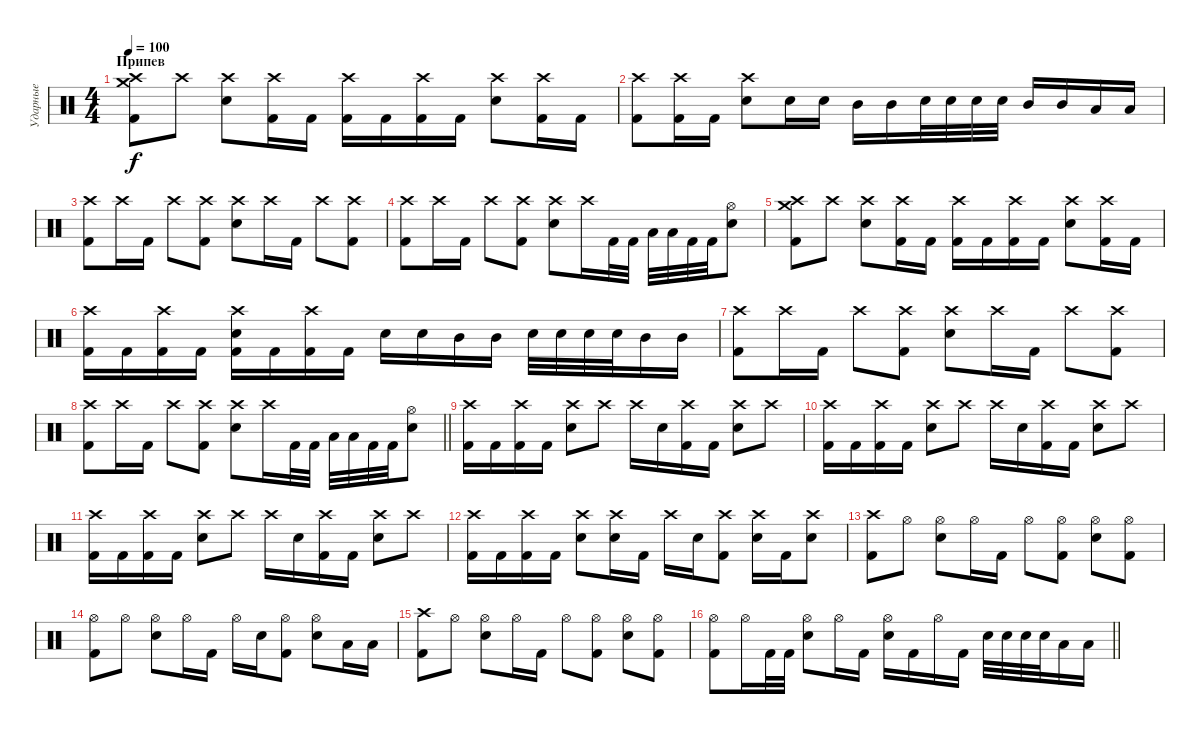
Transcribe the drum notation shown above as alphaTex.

\track ("Ударные" "Ударные") {instrument percussion}
\staff {score}
\articulation defaults
\ts (4 4)
\section ("" "Припев")
\tempo 100
\clef neutral
\ks c
("Kick (hit) 2" "Crash high (hit)" "Crash medium (hit)").8{dy f} "Crash high (hit)".8 ("Crash high (hit)" "Snare (hit) 2").8 ("Crash high (hit)" "Kick (hit) 2").16 "Kick (hit) 2".16 ("Kick (hit) 2" "Crash high (hit)").16 "Kick (hit) 2".16 ("Kick (hit) 2" "Crash high (hit)").16 "Kick (hit) 2".16 ("Snare (hit) 2" "Crash high (hit)").8 ("Crash high (hit)" "Kick (hit) 2").16 "Kick (hit) 2".16 |
("Kick (hit) 2" "Crash high (hit)").8 ("Kick (hit) 2" "Crash high (hit)").16 "Kick (hit) 2".16 ("Crash high (hit)" "Snare (hit) 2").8 "Snare (hit) 2".16 "Snare (hit) 2".16 "Mid Tom (hit)".16 "Mid Tom (hit)".16 "Snare (hit) 2".32 "Snare (hit) 2".32 "Snare (hit) 2".32 "Snare (hit) 2".32 "Mid Tom (hit)".16 "Mid Tom (hit)".16 "Low Tom (hit)".16 "Low Tom (hit)".16 |
("Crash high (hit)" "Kick (hit) 2").8 "Crash high (hit)".16 "Kick (hit) 2".16 "Crash high (hit)".8 ("Crash high (hit)" "Kick (hit) 2").8 ("Crash high (hit)" "Snare (hit) 2").8 "Crash high (hit)".16 "Kick (hit) 2".16 "Crash high (hit)".8 ("Kick (hit) 2" "Crash high (hit)").8 |
("Crash high (hit)" "Kick (hit) 2").8 "Crash high (hit)".16 "Kick (hit) 2".16 "Crash high (hit)".8 ("Crash high (hit)" "Kick (hit) 2").8 ("Crash high (hit)" "Snare (hit) 2").8 "Crash high (hit)".16 "Kick (hit) 2".32 "Kick (hit) 2".32 "Low Tom (hit)".32 "Low Floor Tom (hit)".32 "Kick (hit) 2".32 "Kick (hit) 2".32 ("Hi-Hat (open)" "Snare (hit) 2").8 |
("Kick (hit) 2" "Crash high (hit)" "Crash medium (hit)").8 "Crash high (hit)".8 ("Crash high (hit)" "Snare (hit) 2").8 ("Crash high (hit)" "Kick (hit) 2").16 "Kick (hit) 2".16 ("Kick (hit) 2" "Crash high (hit)").16 "Kick (hit) 2".16 ("Kick (hit) 2" "Crash high (hit)").16 "Kick (hit) 2".16 ("Snare (hit) 2" "Crash high (hit)").8 ("Crash high (hit)" "Kick (hit) 2").16 "Kick (hit) 2".16 |
("Kick (hit) 2" "Crash high (hit)").16 "Kick (hit) 2".16 ("Kick (hit) 2" "Crash high (hit)").16 "Kick (hit) 2".16 ("Crash high (hit)" "Snare (hit) 2" "Kick (hit) 2").16 "Kick (hit) 2".16 ("Kick (hit) 2" "Crash high (hit)").16 "Kick (hit) 2".16 "Snare (hit) 2".16 "Snare (hit) 2".16 "Mid Tom (hit)".16 "Mid Tom (hit)".16 "Snare (hit) 2".32 "Snare (hit) 2".32 "Snare (hit) 2".32 "Snare (hit) 2".32 "Mid Tom (hit)".16 "Mid Tom (hit)".16 |
("Crash high (hit)" "Kick (hit) 2").8 "Crash high (hit)".16 "Kick (hit) 2".16 "Crash high (hit)".8 ("Crash high (hit)" "Kick (hit) 2").8 ("Crash high (hit)" "Snare (hit) 2").8 "Crash high (hit)".16 "Kick (hit) 2".16 "Crash high (hit)".8 ("Kick (hit) 2" "Crash high (hit)").8 |
\barLineRight lightlight
("Crash high (hit)" "Kick (hit) 2").8 "Crash high (hit)".16 "Kick (hit) 2".16 "Crash high (hit)".8 ("Crash high (hit)" "Kick (hit) 2").8 ("Crash high (hit)" "Snare (hit) 2").8 "Crash high (hit)".16 "Kick (hit) 2".32 "Kick (hit) 2".32 "Low Tom (hit)".32 "Low Floor Tom (hit)".32 "Kick (hit) 2".32 "Kick (hit) 2".32 ("Hi-Hat (open)" "Snare (hit) 2").8 |
("Crash high (hit)" "Kick (hit) 2").16 "Kick (hit) 2".16 ("Crash high (hit)" "Kick (hit) 2").16 "Kick (hit) 2".16 ("Crash high (hit)" "Snare (hit) 2").8 "Crash high (hit)".8 "Crash high (hit)".16 "Snare (hit) 2".16 ("Crash high (hit)" "Kick (hit) 2").16 "Kick (hit) 2".16 ("Crash high (hit)" "Snare (hit) 2").8 "Crash high (hit)".8 |
("Crash high (hit)" "Kick (hit) 2").16 "Kick (hit) 2".16 ("Crash high (hit)" "Kick (hit) 2").16 "Kick (hit) 2".16 ("Crash high (hit)" "Snare (hit) 2").8 "Crash high (hit)".8 "Crash high (hit)".16 "Snare (hit) 2".16 ("Crash high (hit)" "Kick (hit) 2").16 "Kick (hit) 2".16 ("Crash high (hit)" "Snare (hit) 2").8 "Crash high (hit)".8 |
("Crash high (hit)" "Kick (hit) 2").16 "Kick (hit) 2".16 ("Crash high (hit)" "Kick (hit) 2").16 "Kick (hit) 2".16 ("Crash high (hit)" "Snare (hit) 2").8 "Crash high (hit)".8 "Crash high (hit)".16 "Snare (hit) 2".16 ("Crash high (hit)" "Kick (hit) 2").16 "Kick (hit) 2".16 ("Crash high (hit)" "Snare (hit) 2").8 "Crash high (hit)".8 |
("Crash high (hit)" "Kick (hit) 2").16 "Kick (hit) 2".16 ("Crash high (hit)" "Kick (hit) 2").16 "Kick (hit) 2".16 ("Crash high (hit)" "Snare (hit) 2").8 ("Snare (hit) 2" "Crash high (hit)").16 "Kick (hit) 2".16 "Crash high (hit)".16 "Snare (hit) 2".16 ("Crash high (hit)" "Kick (hit) 2").8 ("Crash high (hit)" "Snare (hit) 2").16 "Kick (hit) 2".16 ("Crash high (hit)" "Snare (hit) 2").8 |
("Crash high (hit)" "Kick (hit) 2").8 "Hi-Hat (open)".8 ("Hi-Hat (open)" "Snare (hit) 2").8 "Hi-Hat (open)".16 "Kick (hit) 2".16 "Hi-Hat (open)".8 ("Hi-Hat (open)" "Kick (hit) 2").8 ("Hi-Hat (open)" "Snare (hit) 2").8 ("Kick (hit) 2" "Hi-Hat (open)").8 |
("Hi-Hat (open)" "Kick (hit) 2").8 "Hi-Hat (open)".8 ("Hi-Hat (open)" "Snare (hit) 2").8 "Hi-Hat (open)".16 "Kick (hit) 2".16 "Hi-Hat (open)".16 "Snare (hit) 2".16 ("Hi-Hat (open)" "Kick (hit) 2").8 ("Hi-Hat (open)" "Snare (hit) 2").8 "Low Tom (hit)".16 "Low Floor Tom (hit)".16 |
("Crash high (hit)" "Kick (hit) 2").8 "Hi-Hat (open)".8 ("Hi-Hat (open)" "Snare (hit) 2").8 "Hi-Hat (open)".16 "Kick (hit) 2".16 "Hi-Hat (open)".8 ("Hi-Hat (open)" "Kick (hit) 2").8 ("Hi-Hat (open)" "Snare (hit) 2").8 ("Kick (hit) 2" "Hi-Hat (open)").8 |
\barLineRight lightlight
("Hi-Hat (open)" "Kick (hit) 2").8 "Hi-Hat (open)".16 "Kick (hit) 2".32 "Kick (hit) 2".32 ("Hi-Hat (open)" "Snare (hit) 2").8 "Hi-Hat (open)".16 "Kick (hit) 2".16 ("Hi-Hat (open)" "Snare (hit) 2").16 "Kick (hit) 2".16 "Hi-Hat (open)".16 "Kick (hit) 2".16 "Snare (hit) 2".32 "Snare (hit) 2".32 "Snare (hit) 2".32 "Snare (hit) 2".32 "Low Tom (hit)".16 "Low Floor Tom (hit)".16
